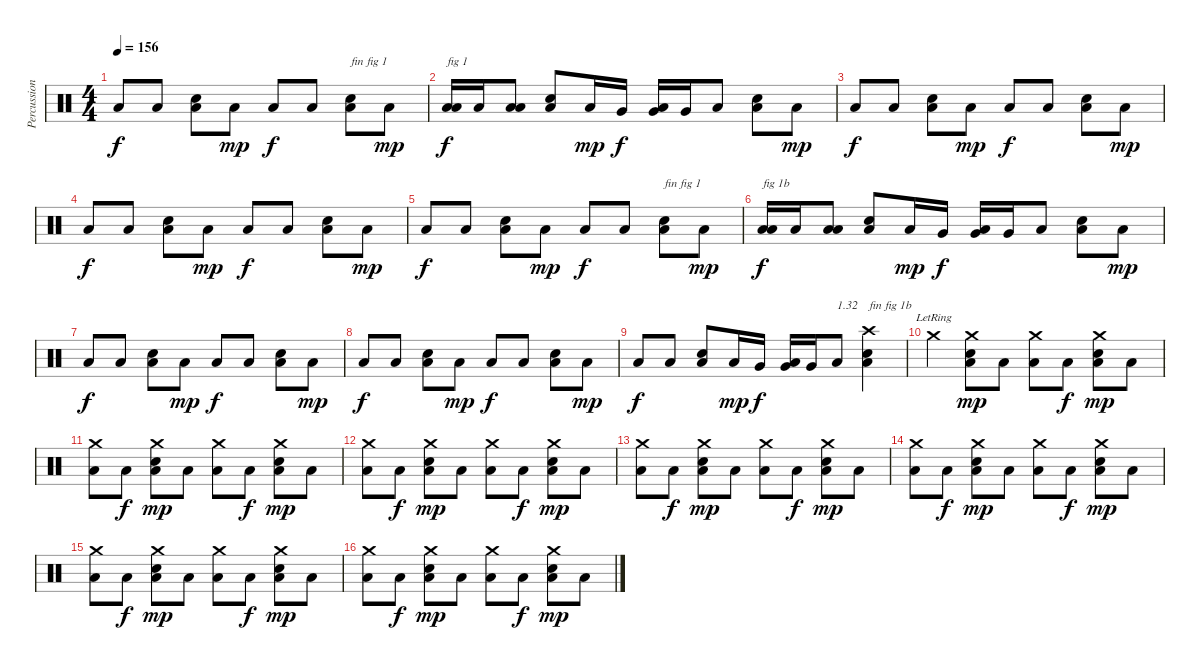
\track ("Percussions" "Percussion") {instrument percussion}
\staff {score}
\articulation defaults
\ts (4 4)
\tempo 156
\clef neutral
\ks c "Low Floor Tom (hit)".8{dy f} "Low Floor Tom (hit)".8
("Low Floor Tom (hit)" "Snare (hit) 2").8 "Low Floor Tom (hit)".8{dy mp} "Low Floor Tom (hit)".8{dy f} "Low Floor Tom (hit)".8 ("Low Floor Tom (hit)" "Snare (hit) 2").8{txt "fin fig 1"} "Low Floor Tom (hit)".8{dy mp} |
("Low Floor Tom (hit)" "Low Tom (hit)").16{txt "fig 1" dy f} "Low Tom (hit)".16 ("Low Floor Tom (hit)" "Low Tom (hit)").8 ("Low Floor Tom (hit)" "Snare (hit) 2").8 "Low Floor Tom (hit)".16{dy mp} "Very Low Tom (hit)".16{dy f} ("Low Floor Tom (hit)" "Very Low Tom (hit)").16 "Very Low Tom (hit)".16 "Low Floor Tom (hit)".8 ("Low Floor Tom (hit)" "Snare (hit) 2").8 "Low Floor Tom (hit)".8{dy mp} |
"Low Floor Tom (hit)".8{dy f} "Low Floor Tom (hit)".8 ("Low Floor Tom (hit)" "Snare (hit) 2").8 "Low Floor Tom (hit)".8{dy mp} "Low Floor Tom (hit)".8{dy f} "Low Floor Tom (hit)".8 ("Low Floor Tom (hit)" "Snare (hit) 2").8 "Low Floor Tom (hit)".8{dy mp} |
"Low Floor Tom (hit)".8{dy f} "Low Floor Tom (hit)".8 ("Low Floor Tom (hit)" "Snare (hit) 2").8 "Low Floor Tom (hit)".8{dy mp} "Low Floor Tom (hit)".8{dy f} "Low Floor Tom (hit)".8 ("Low Floor Tom (hit)" "Snare (hit) 2").8 "Low Floor Tom (hit)".8{dy mp} |
"Low Floor Tom (hit)".8{dy f} "Low Floor Tom (hit)".8 ("Low Floor Tom (hit)" "Snare (hit) 2").8 "Low Floor Tom (hit)".8{dy mp} "Low Floor Tom (hit)".8{dy f} "Low Floor Tom (hit)".8 ("Low Floor Tom (hit)" "Snare (hit) 2").8{txt "fin fig 1"} "Low Floor Tom (hit)".8{dy mp} |
("Low Floor Tom (hit)" "Low Tom (hit)").16{txt "fig 1b" dy f} "Low Tom (hit)".16 ("Low Floor Tom (hit)" "Low Tom (hit)").8 ("Low Floor Tom (hit)" "Snare (hit) 2").8 "Low Floor Tom (hit)".16{dy mp} "Very Low Tom (hit)".16{dy f} ("Low Floor Tom (hit)" "Very Low Tom (hit)").16 "Very Low Tom (hit)".16 "Low Floor Tom (hit)".8 ("Low Floor Tom (hit)" "Snare (hit) 2").8 "Low Floor Tom (hit)".8{dy mp} |
"Low Floor Tom (hit)".8{dy f} "Low Floor Tom (hit)".8 ("Low Floor Tom (hit)" "Snare (hit) 2").8 "Low Floor Tom (hit)".8{dy mp} "Low Floor Tom (hit)".8{dy f} "Low Floor Tom (hit)".8 ("Low Floor Tom (hit)" "Snare (hit) 2").8 "Low Floor Tom (hit)".8{dy mp} |
"Low Floor Tom (hit)".8{dy f} "Low Floor Tom (hit)".8 ("Low Floor Tom (hit)" "Snare (hit) 2").8 "Low Floor Tom (hit)".8{dy mp} "Low Floor Tom (hit)".8{dy f} "Low Floor Tom (hit)".8 ("Low Floor Tom (hit)" "Snare (hit) 2").8 "Low Floor Tom (hit)".8{dy mp} |
"Low Floor Tom (hit)".8{dy f} "Low Floor Tom (hit)".8 ("Low Floor Tom (hit)" "Snare (hit) 2").8 "Low Floor Tom (hit)".16{dy mp} "Very Low Tom (hit)".16{dy f} ("Low Floor Tom (hit)" "Very Low Tom (hit)").16 "Very Low Tom (hit)".16 "Low Floor Tom (hit)".8{txt "1.32"} ("Low Floor Tom (hit)" "Snare (hit) 2" "Crash high (hit)").4{txt "fin fig 1b"} |
"Crash medium (hit)"{lr}.4 ("Low Floor Tom (hit)" "Snare (hit) 2" "Crash medium (hit)").8{dy mp} "Low Floor Tom (hit)".8 ("Low Floor Tom (hit)" "Crash medium (hit)").8 "Low Floor Tom (hit)".8{dy f} ("Low Floor Tom (hit)" "Snare (hit) 2" "Crash medium (hit)").8{dy mp} "Low Floor Tom (hit)".8 |
("Low Floor Tom (hit)" "Crash medium (hit)").8 "Low Floor Tom (hit)".8{dy f} ("Low Floor Tom (hit)" "Snare (hit) 2" "Crash medium (hit)").8{dy mp} "Low Floor Tom (hit)".8 ("Low Floor Tom (hit)" "Crash medium (hit)").8 "Low Floor Tom (hit)".8{dy f} ("Low Floor Tom (hit)" "Snare (hit) 2" "Crash medium (hit)").8{dy mp} "Low Floor Tom (hit)".8 |
("Low Floor Tom (hit)" "Crash medium (hit)").8 "Low Floor Tom (hit)".8{dy f} ("Low Floor Tom (hit)" "Snare (hit) 2" "Crash medium (hit)").8{dy mp} "Low Floor Tom (hit)".8 ("Low Floor Tom (hit)" "Crash medium (hit)").8 "Low Floor Tom (hit)".8{dy f} ("Low Floor Tom (hit)" "Snare (hit) 2" "Crash medium (hit)").8{dy mp} "Low Floor Tom (hit)".8 |
("Low Floor Tom (hit)" "Crash medium (hit)").8 "Low Floor Tom (hit)".8{dy f} ("Low Floor Tom (hit)" "Snare (hit) 2" "Crash medium (hit)").8{dy mp} "Low Floor Tom (hit)".8 ("Low Floor Tom (hit)" "Crash medium (hit)").8 "Low Floor Tom (hit)".8{dy f} ("Low Floor Tom (hit)" "Snare (hit) 2" "Crash medium (hit)").8{dy mp} "Low Floor Tom (hit)".8 |
("Low Floor Tom (hit)" "Crash medium (hit)").8 "Low Floor Tom (hit)".8{dy f} ("Low Floor Tom (hit)" "Snare (hit) 2" "Crash medium (hit)").8{dy mp} "Low Floor Tom (hit)".8 ("Low Floor Tom (hit)" "Crash medium (hit)").8 "Low Floor Tom (hit)".8{dy f} ("Low Floor Tom (hit)" "Snare (hit) 2" "Crash medium (hit)").8{dy mp} "Low Floor Tom (hit)".8 |
("Low Floor Tom (hit)" "Crash medium (hit)").8 "Low Floor Tom (hit)".8{dy f} ("Low Floor Tom (hit)" "Snare (hit) 2" "Crash medium (hit)").8{dy mp} "Low Floor Tom (hit)".8 ("Low Floor Tom (hit)" "Crash medium (hit)").8 "Low Floor Tom (hit)".8{dy f} ("Low Floor Tom (hit)" "Snare (hit) 2" "Crash medium (hit)").8{dy mp} "Low Floor Tom (hit)".8 |
("Low Floor Tom (hit)" "Crash medium (hit)").8 "Low Floor Tom (hit)".8{dy f} ("Low Floor Tom (hit)" "Snare (hit) 2" "Crash medium (hit)").8{dy mp} "Low Floor Tom (hit)".8 ("Low Floor Tom (hit)" "Crash medium (hit)").8 "Low Floor Tom (hit)".8{dy f} ("Low Floor Tom (hit)" "Snare (hit) 2" "Crash medium (hit)").8{dy mp} "Low Floor Tom (hit)".8
